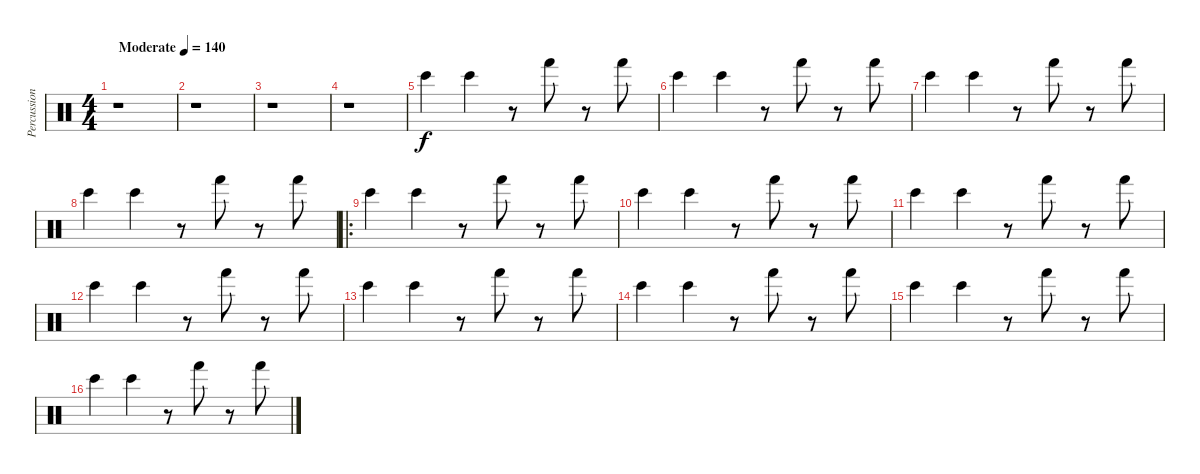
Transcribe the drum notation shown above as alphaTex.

\track ("Percussions" "Percussion") {instrument percussion}
\staff {score}
\articulation defaults
\ts (4 4)
\tempo (140 "Moderate")
\clef neutral
\ks c
r.1{dy f} |
r.1 |
r.1 |
r.1 |
"Bongo High (hit)".4 "Bongo High (hit)".4 r.8 "Hand (hit)".8 r.8 "Hand (hit)".8 |
"Bongo High (hit)".4 "Bongo High (hit)".4 r.8 "Hand (hit)".8 r.8 "Hand (hit)".8 |
"Bongo High (hit)".4 "Bongo High (hit)".4 r.8 "Hand (hit)".8 r.8 "Hand (hit)".8 |
"Bongo High (hit)".4 "Bongo High (hit)".4 r.8 "Hand (hit)".8 r.8 "Hand (hit)".8 |
\ro "Bongo High (hit)".4 "Bongo High (hit)".4
r.8 "Hand (hit)".8 r.8 "Hand (hit)".8 |
"Bongo High (hit)".4 "Bongo High (hit)".4 r.8 "Hand (hit)".8 r.8 "Hand (hit)".8 |
"Bongo High (hit)".4 "Bongo High (hit)".4 r.8 "Hand (hit)".8 r.8 "Hand (hit)".8 |
"Bongo High (hit)".4 "Bongo High (hit)".4 r.8 "Hand (hit)".8 r.8 "Hand (hit)".8 |
"Bongo High (hit)".4 "Bongo High (hit)".4 r.8 "Hand (hit)".8 r.8 "Hand (hit)".8 |
"Bongo High (hit)".4 "Bongo High (hit)".4 r.8 "Hand (hit)".8 r.8 "Hand (hit)".8 |
"Bongo High (hit)".4 "Bongo High (hit)".4 r.8 "Hand (hit)".8 r.8 "Hand (hit)".8 |
"Bongo High (hit)".4 "Bongo High (hit)".4 r.8 "Hand (hit)".8 r.8 "Hand (hit)".8
